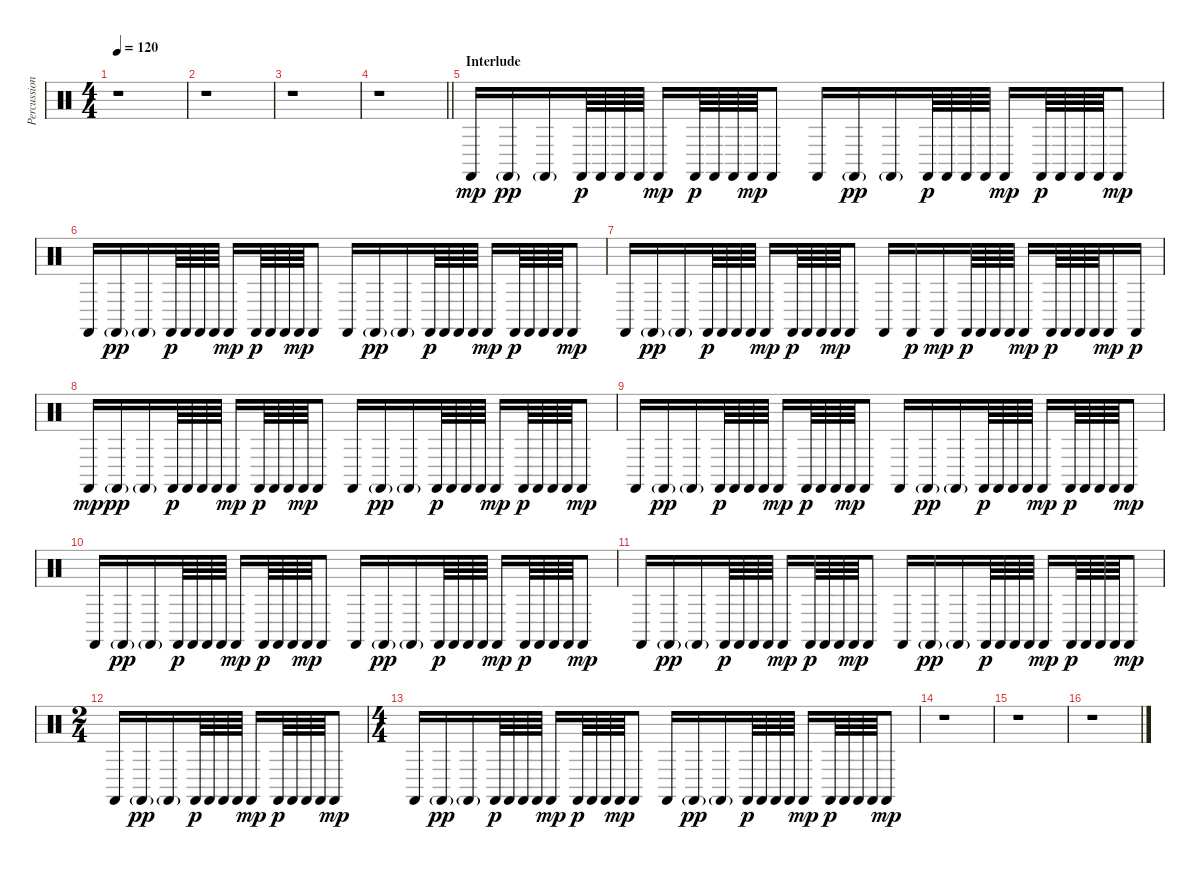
\track ("Percussion" "Percussion") {instrument percussion}
\staff {score}
\articulation defaults
\ts (4 4)
\tempo 120
\clef neutral
\ks c
r.1{dy mp} |
r.1 |
r.1 |
\barLineRight lightlight
r.1 |
\section ("" "Interlude")
"Castanets (hit)".16 "Castanets (hit)"{g}.16{dy pp} "Castanets (hit)"{g}.16 "Castanets (hit)".64{dy p} "Castanets (hit)".64 "Castanets (hit)".64 "Castanets (hit)".64 "Castanets (hit)".16{dy mp} "Castanets (hit)".64{dy p} "Castanets (hit)".64 "Castanets (hit)".64 "Castanets (hit)".64{dy mp} "Castanets (hit)".8 "Castanets (hit)".16 "Castanets (hit)"{g}.16{dy pp} "Castanets (hit)"{g}.16 "Castanets (hit)".64{dy p} "Castanets (hit)".64 "Castanets (hit)".64 "Castanets (hit)".64 "Castanets (hit)".16{dy mp} "Castanets (hit)".64{dy p} "Castanets (hit)".64 "Castanets (hit)".64 "Castanets (hit)".64 "Castanets (hit)".8{dy mp} |
"Castanets (hit)".16 "Castanets (hit)"{g}.16{dy pp} "Castanets (hit)"{g}.16 "Castanets (hit)".64{dy p} "Castanets (hit)".64 "Castanets (hit)".64 "Castanets (hit)".64 "Castanets (hit)".16{dy mp} "Castanets (hit)".64{dy p} "Castanets (hit)".64 "Castanets (hit)".64 "Castanets (hit)".64{dy mp} "Castanets (hit)".8 "Castanets (hit)".16 "Castanets (hit)"{g}.16{dy pp} "Castanets (hit)"{g}.16 "Castanets (hit)".64{dy p} "Castanets (hit)".64 "Castanets (hit)".64 "Castanets (hit)".64 "Castanets (hit)".16{dy mp} "Castanets (hit)".64{dy p} "Castanets (hit)".64 "Castanets (hit)".64 "Castanets (hit)".64 "Castanets (hit)".8{dy mp} |
"Castanets (hit)".16 "Castanets (hit)"{g}.16{dy pp} "Castanets (hit)"{g}.16 "Castanets (hit)".64{dy p} "Castanets (hit)".64 "Castanets (hit)".64 "Castanets (hit)".64 "Castanets (hit)".16{dy mp} "Castanets (hit)".64{dy p} "Castanets (hit)".64 "Castanets (hit)".64 "Castanets (hit)".64{dy mp} "Castanets (hit)".8 "Castanets (hit)".16 "Castanets (hit)".16{dy p} "Castanets (hit)".16{dy mp} "Castanets (hit)".64{dy p} "Castanets (hit)".64 "Castanets (hit)".64 "Castanets (hit)".64 "Castanets (hit)".16{dy mp} "Castanets (hit)".64{dy p} "Castanets (hit)".64 "Castanets (hit)".64 "Castanets (hit)".64 "Castanets (hit)".16{dy mp} "Castanets (hit)".16{dy p} |
"Castanets (hit)".16{dy mp} "Castanets (hit)"{g}.16{dy pp} "Castanets (hit)"{g}.16 "Castanets (hit)".64{dy p} "Castanets (hit)".64 "Castanets (hit)".64 "Castanets (hit)".64 "Castanets (hit)".16{dy mp} "Castanets (hit)".64{dy p} "Castanets (hit)".64 "Castanets (hit)".64 "Castanets (hit)".64{dy mp} "Castanets (hit)".8 "Castanets (hit)".16 "Castanets (hit)"{g}.16{dy pp} "Castanets (hit)"{g}.16 "Castanets (hit)".64{dy p} "Castanets (hit)".64 "Castanets (hit)".64 "Castanets (hit)".64 "Castanets (hit)".16{dy mp} "Castanets (hit)".64{dy p} "Castanets (hit)".64 "Castanets (hit)".64 "Castanets (hit)".64 "Castanets (hit)".8{dy mp} |
"Castanets (hit)".16 "Castanets (hit)"{g}.16{dy pp} "Castanets (hit)"{g}.16 "Castanets (hit)".64{dy p} "Castanets (hit)".64 "Castanets (hit)".64 "Castanets (hit)".64 "Castanets (hit)".16{dy mp} "Castanets (hit)".64{dy p} "Castanets (hit)".64 "Castanets (hit)".64 "Castanets (hit)".64{dy mp} "Castanets (hit)".8 "Castanets (hit)".16 "Castanets (hit)"{g}.16{dy pp} "Castanets (hit)"{g}.16 "Castanets (hit)".64{dy p} "Castanets (hit)".64 "Castanets (hit)".64 "Castanets (hit)".64 "Castanets (hit)".16{dy mp} "Castanets (hit)".64{dy p} "Castanets (hit)".64 "Castanets (hit)".64 "Castanets (hit)".64 "Castanets (hit)".8{dy mp} |
"Castanets (hit)".16 "Castanets (hit)"{g}.16{dy pp} "Castanets (hit)"{g}.16 "Castanets (hit)".64{dy p} "Castanets (hit)".64 "Castanets (hit)".64 "Castanets (hit)".64 "Castanets (hit)".16{dy mp} "Castanets (hit)".64{dy p} "Castanets (hit)".64 "Castanets (hit)".64 "Castanets (hit)".64{dy mp} "Castanets (hit)".8 "Castanets (hit)".16 "Castanets (hit)"{g}.16{dy pp} "Castanets (hit)"{g}.16 "Castanets (hit)".64{dy p} "Castanets (hit)".64 "Castanets (hit)".64 "Castanets (hit)".64 "Castanets (hit)".16{dy mp} "Castanets (hit)".64{dy p} "Castanets (hit)".64 "Castanets (hit)".64 "Castanets (hit)".64 "Castanets (hit)".8{dy mp} |
"Castanets (hit)".16 "Castanets (hit)"{g}.16{dy pp} "Castanets (hit)"{g}.16 "Castanets (hit)".64{dy p} "Castanets (hit)".64 "Castanets (hit)".64 "Castanets (hit)".64 "Castanets (hit)".16{dy mp} "Castanets (hit)".64{dy p} "Castanets (hit)".64 "Castanets (hit)".64 "Castanets (hit)".64{dy mp} "Castanets (hit)".8 "Castanets (hit)".16 "Castanets (hit)"{g}.16{dy pp} "Castanets (hit)"{g}.16 "Castanets (hit)".64{dy p} "Castanets (hit)".64 "Castanets (hit)".64 "Castanets (hit)".64 "Castanets (hit)".16{dy mp} "Castanets (hit)".64{dy p} "Castanets (hit)".64 "Castanets (hit)".64 "Castanets (hit)".64 "Castanets (hit)".8{dy mp} |
\ts (2 4)
"Castanets (hit)".16 "Castanets (hit)"{g}.16{dy pp} "Castanets (hit)"{g}.16 "Castanets (hit)".64{dy p} "Castanets (hit)".64 "Castanets (hit)".64 "Castanets (hit)".64 "Castanets (hit)".16{dy mp} "Castanets (hit)".64{dy p} "Castanets (hit)".64 "Castanets (hit)".64 "Castanets (hit)".64 "Castanets (hit)".8{dy mp} |
\ts (4 4)
"Castanets (hit)".16{volume 0} "Castanets (hit)"{g}.16{dy pp} "Castanets (hit)"{g}.16 "Castanets (hit)".64{dy p} "Castanets (hit)".64 "Castanets (hit)".64 "Castanets (hit)".64 "Castanets (hit)".16{dy mp} "Castanets (hit)".64{dy p} "Castanets (hit)".64 "Castanets (hit)".64 "Castanets (hit)".64{dy mp} "Castanets (hit)".8 "Castanets (hit)".16 "Castanets (hit)"{g}.16{dy pp} "Castanets (hit)"{g}.16 "Castanets (hit)".64{dy p} "Castanets (hit)".64 "Castanets (hit)".64 "Castanets (hit)".64 "Castanets (hit)".16{dy mp} "Castanets (hit)".64{dy p} "Castanets (hit)".64 "Castanets (hit)".64 "Castanets (hit)".64 "Castanets (hit)".8{dy mp} |
r.1 |
r.1 |
r.1
